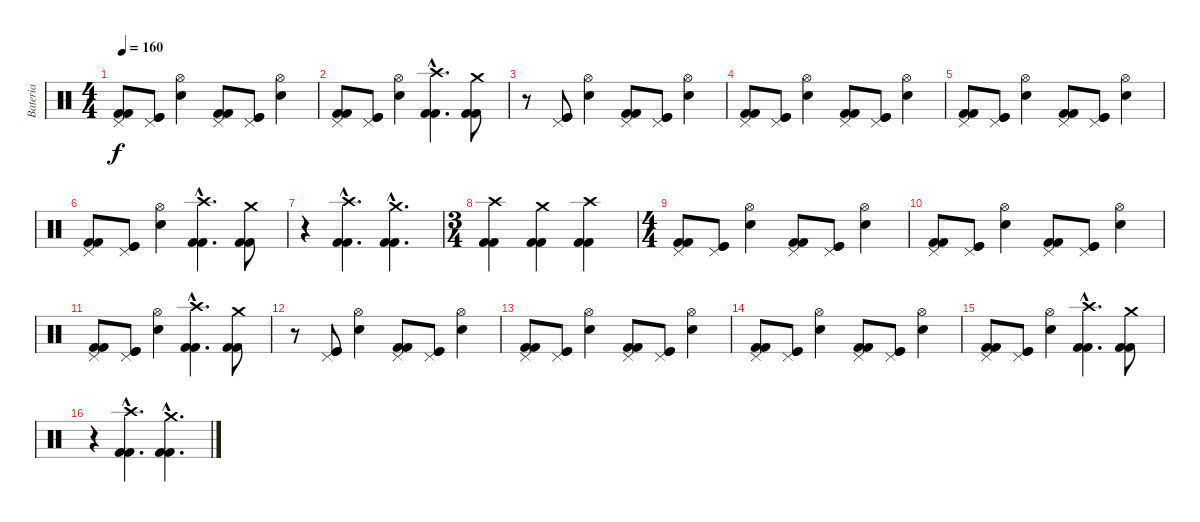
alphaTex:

\track ("Bateria" "Bateria") {instrument percussion}
\staff {score}
\articulation defaults
\ts (4 4)
\tempo 160
\clef neutral
\ks c
("Kick (hit) 2" "Kick (hit) 2" "Pedal Hi-Hat (hit)").8{dy f} ("Kick (hit)" "Kick (hit)" "Pedal Hi-Hat (hit)").8 ("Snare (hit) 2" "Hi-Hat (open)").4 ("Kick (hit) 2" "Kick (hit) 2" "Pedal Hi-Hat (hit)").8 ("Kick (hit)" "Kick (hit)" "Pedal Hi-Hat (hit)").8 ("Snare (hit) 2" "Hi-Hat (open)").4 |
("Kick (hit) 2" "Kick (hit) 2" "Pedal Hi-Hat (hit)").8 ("Kick (hit)" "Kick (hit)" "Pedal Hi-Hat (hit)").8 ("Snare (hit) 2" "Hi-Hat (open)").4 ("Kick (hit) 2"{hac} "Kick (hit) 2"{hac} "Crash high (hit)"{hac}).4{d} ("Kick (hit) 2" "Kick (hit) 2" "Crash medium (hit)").8 |
r.8 ("Kick (hit)" "Kick (hit)" "Pedal Hi-Hat (hit)").8 ("Snare (hit) 2" "Hi-Hat (open)").4 ("Kick (hit) 2" "Kick (hit) 2" "Pedal Hi-Hat (hit)").8 ("Kick (hit)" "Kick (hit)" "Pedal Hi-Hat (hit)").8 ("Snare (hit) 2" "Hi-Hat (open)").4 |
("Kick (hit) 2" "Kick (hit) 2" "Pedal Hi-Hat (hit)").8 ("Kick (hit)" "Kick (hit)" "Pedal Hi-Hat (hit)").8 ("Snare (hit) 2" "Hi-Hat (open)").4 ("Kick (hit) 2" "Kick (hit) 2" "Pedal Hi-Hat (hit)").8 ("Kick (hit)" "Kick (hit)" "Pedal Hi-Hat (hit)").8 ("Snare (hit) 2" "Hi-Hat (open)").4 |
("Kick (hit) 2" "Kick (hit) 2" "Pedal Hi-Hat (hit)").8 ("Kick (hit)" "Kick (hit)" "Pedal Hi-Hat (hit)").8 ("Snare (hit) 2" "Hi-Hat (open)").4 ("Kick (hit) 2" "Kick (hit) 2" "Pedal Hi-Hat (hit)").8 ("Kick (hit)" "Kick (hit)" "Pedal Hi-Hat (hit)").8 ("Snare (hit) 2" "Hi-Hat (open)").4 |
("Kick (hit) 2" "Kick (hit) 2" "Pedal Hi-Hat (hit)").8 ("Kick (hit)" "Kick (hit)" "Pedal Hi-Hat (hit)").8 ("Snare (hit) 2" "Hi-Hat (open)").4 ("Kick (hit) 2"{hac} "Kick (hit) 2"{hac} "Crash high (hit)"{hac}).4{d} ("Kick (hit) 2" "Kick (hit) 2" "Crash medium (hit)").8 |
r.4 ("Kick (hit) 2"{hac} "Kick (hit) 2"{hac} "Crash high (hit)"{hac}).4{d} ("Kick (hit) 2"{hac} "Kick (hit) 2"{hac} "Crash medium (hit)"{hac}).4{d} |
\ts (3 4)
("Kick (hit) 2" "Kick (hit) 2" "Crash high (hit)").4 ("Kick (hit) 2" "Kick (hit) 2" "Crash medium (hit)").4 ("Kick (hit) 2" "Kick (hit) 2" "Crash high (hit)").4 |
\ts (4 4)
("Kick (hit) 2" "Kick (hit) 2" "Pedal Hi-Hat (hit)").8 ("Kick (hit)" "Kick (hit)" "Pedal Hi-Hat (hit)").8 ("Snare (hit) 2" "Hi-Hat (open)").4 ("Kick (hit) 2" "Kick (hit) 2" "Pedal Hi-Hat (hit)").8 ("Kick (hit)" "Kick (hit)" "Pedal Hi-Hat (hit)").8 ("Snare (hit) 2" "Hi-Hat (open)").4 |
("Kick (hit) 2" "Kick (hit) 2" "Pedal Hi-Hat (hit)").8 ("Kick (hit)" "Kick (hit)" "Pedal Hi-Hat (hit)").8 ("Snare (hit) 2" "Hi-Hat (open)").4 ("Kick (hit) 2" "Kick (hit) 2" "Pedal Hi-Hat (hit)").8 ("Kick (hit)" "Kick (hit)" "Pedal Hi-Hat (hit)").8 ("Snare (hit) 2" "Hi-Hat (open)").4 |
("Kick (hit) 2" "Kick (hit) 2" "Pedal Hi-Hat (hit)").8 ("Kick (hit)" "Kick (hit)" "Pedal Hi-Hat (hit)").8 ("Snare (hit) 2" "Hi-Hat (open)").4 ("Kick (hit) 2"{hac} "Kick (hit) 2"{hac} "Crash high (hit)"{hac}).4{d} ("Kick (hit) 2" "Kick (hit) 2" "Crash medium (hit)").8 |
r.8 ("Kick (hit)" "Kick (hit)" "Pedal Hi-Hat (hit)").8 ("Snare (hit) 2" "Hi-Hat (open)").4 ("Kick (hit) 2" "Kick (hit) 2" "Pedal Hi-Hat (hit)").8 ("Kick (hit)" "Kick (hit)" "Pedal Hi-Hat (hit)").8 ("Snare (hit) 2" "Hi-Hat (open)").4 |
("Kick (hit) 2" "Kick (hit) 2" "Pedal Hi-Hat (hit)").8 ("Kick (hit)" "Kick (hit)" "Pedal Hi-Hat (hit)").8 ("Snare (hit) 2" "Hi-Hat (open)").4 ("Kick (hit) 2" "Kick (hit) 2" "Pedal Hi-Hat (hit)").8 ("Kick (hit)" "Kick (hit)" "Pedal Hi-Hat (hit)").8 ("Snare (hit) 2" "Hi-Hat (open)").4 |
("Kick (hit) 2" "Kick (hit) 2" "Pedal Hi-Hat (hit)").8 ("Kick (hit)" "Kick (hit)" "Pedal Hi-Hat (hit)").8 ("Snare (hit) 2" "Hi-Hat (open)").4 ("Kick (hit) 2" "Kick (hit) 2" "Pedal Hi-Hat (hit)").8 ("Kick (hit)" "Kick (hit)" "Pedal Hi-Hat (hit)").8 ("Snare (hit) 2" "Hi-Hat (open)").4 |
("Kick (hit) 2" "Kick (hit) 2" "Pedal Hi-Hat (hit)").8 ("Kick (hit)" "Kick (hit)" "Pedal Hi-Hat (hit)").8 ("Snare (hit) 2" "Hi-Hat (open)").4 ("Kick (hit) 2"{hac} "Kick (hit) 2"{hac} "Crash high (hit)"{hac}).4{d} ("Kick (hit) 2" "Kick (hit) 2" "Crash medium (hit)").8 |
r.4 ("Kick (hit) 2"{hac} "Kick (hit) 2"{hac} "Crash high (hit)"{hac}).4{d} ("Kick (hit) 2"{hac} "Kick (hit) 2"{hac} "Crash medium (hit)"{hac}).4{d}
